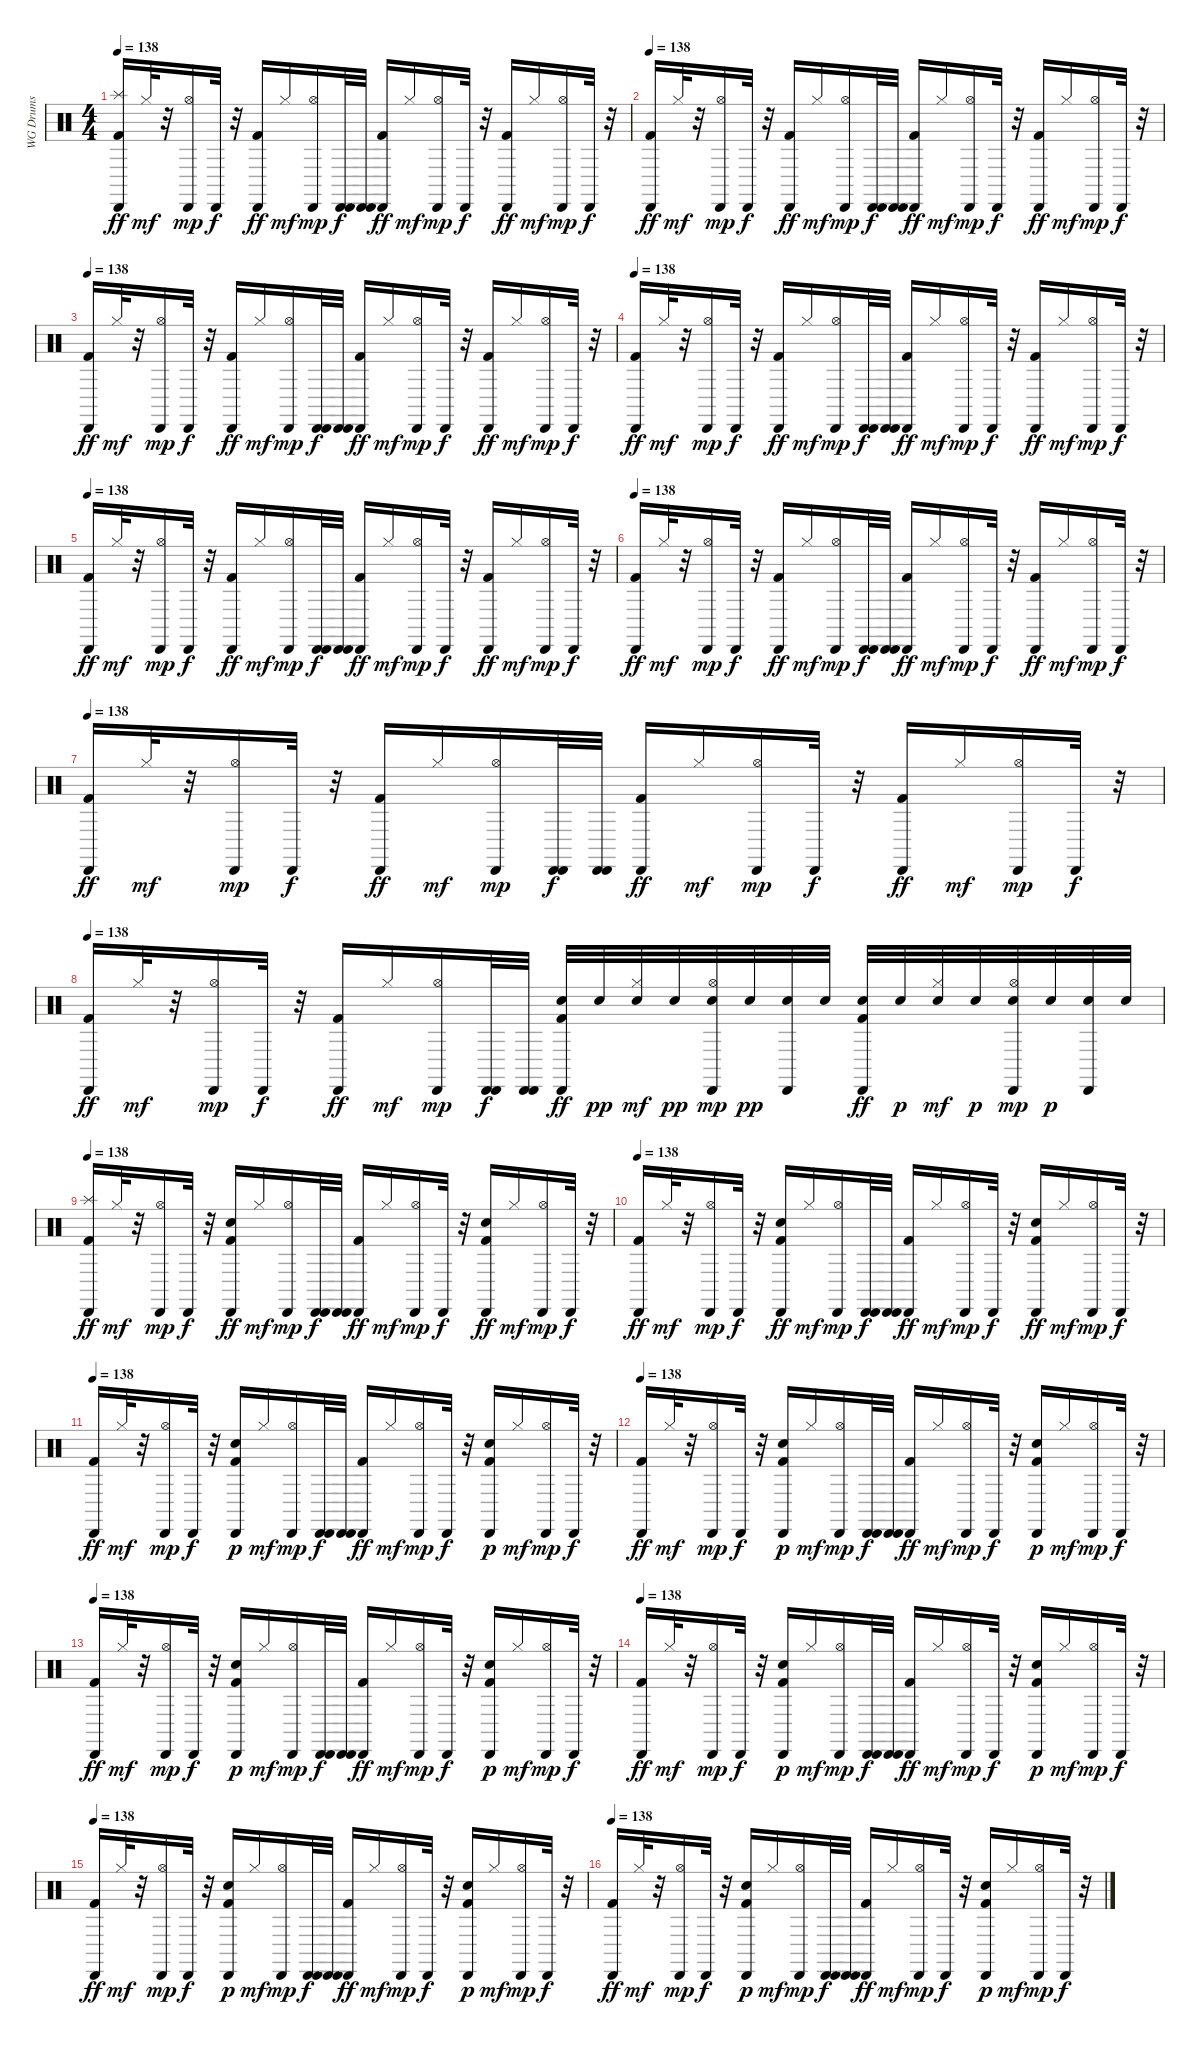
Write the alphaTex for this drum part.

\track ("WG Drums" "WG Drums") {instrument percussion}
\staff {score}
\articulation defaults
\ts (4 4)
\tempo 138
\clef neutral
\ks c
("Splash (hit)" "Cabasa (hit)" "Kick (hit) 2").16{dy ff} "Hi-Hat (closed)".32{dy mf} r.32 ("Cabasa (hit)" "Hi-Hat (open)").16{dy mp} "Cabasa (hit)".32{dy f} r.32 ("Cabasa (hit)" "Kick (hit) 2").16{dy ff} "Hi-Hat (closed)".16{dy mf} ("Cabasa (hit)" "Hi-Hat (open)").16{dy mp} ("Cabasa (hit)" "Cabasa (hit)").32{dy f} ("Cabasa (hit)" "Cabasa (hit)").32 ("Cabasa (hit)" "Kick (hit) 2").16{dy ff} "Hi-Hat (closed)".16{dy mf} ("Cabasa (hit)" "Hi-Hat (open)").16{dy mp} "Cabasa (hit)".32{dy f} r.32 ("Cabasa (hit)" "Kick (hit) 2").16{dy ff} "Hi-Hat (closed)".16{dy mf} ("Cabasa (hit)" "Hi-Hat (open)").16{dy mp} "Cabasa (hit)".32{dy f} r.32 |
\tempo 138
("Cabasa (hit)" "Kick (hit) 2").16{dy ff} "Hi-Hat (closed)".32{dy mf} r.32 ("Cabasa (hit)" "Hi-Hat (open)").16{dy mp} "Cabasa (hit)".32{dy f} r.32 ("Cabasa (hit)" "Kick (hit) 2").16{dy ff} "Hi-Hat (closed)".16{dy mf} ("Cabasa (hit)" "Hi-Hat (open)").16{dy mp} ("Cabasa (hit)" "Cabasa (hit)").32{dy f} ("Cabasa (hit)" "Cabasa (hit)").32 ("Cabasa (hit)" "Kick (hit) 2").16{dy ff} "Hi-Hat (closed)".16{dy mf} ("Cabasa (hit)" "Hi-Hat (open)").16{dy mp} "Cabasa (hit)".32{dy f} r.32 ("Cabasa (hit)" "Kick (hit) 2").16{dy ff} "Hi-Hat (closed)".16{dy mf} ("Cabasa (hit)" "Hi-Hat (open)").16{dy mp} "Cabasa (hit)".32{dy f} r.32 |
\tempo 138
("Cabasa (hit)" "Kick (hit) 2").16{dy ff} "Hi-Hat (closed)".32{dy mf} r.32 ("Cabasa (hit)" "Hi-Hat (open)").16{dy mp} "Cabasa (hit)".32{dy f} r.32 ("Cabasa (hit)" "Kick (hit) 2").16{dy ff} "Hi-Hat (closed)".16{dy mf} ("Cabasa (hit)" "Hi-Hat (open)").16{dy mp} ("Cabasa (hit)" "Cabasa (hit)").32{dy f} ("Cabasa (hit)" "Cabasa (hit)").32 ("Cabasa (hit)" "Kick (hit) 2").16{dy ff} "Hi-Hat (closed)".16{dy mf} ("Cabasa (hit)" "Hi-Hat (open)").16{dy mp} "Cabasa (hit)".32{dy f} r.32 ("Cabasa (hit)" "Kick (hit) 2").16{dy ff} "Hi-Hat (closed)".16{dy mf} ("Cabasa (hit)" "Hi-Hat (open)").16{dy mp} "Cabasa (hit)".32{dy f} r.32 |
\tempo 138
("Cabasa (hit)" "Kick (hit) 2").16{dy ff} "Hi-Hat (closed)".32{dy mf} r.32 ("Cabasa (hit)" "Hi-Hat (open)").16{dy mp} "Cabasa (hit)".32{dy f} r.32 ("Cabasa (hit)" "Kick (hit) 2").16{dy ff} "Hi-Hat (closed)".16{dy mf} ("Cabasa (hit)" "Hi-Hat (open)").16{dy mp} ("Cabasa (hit)" "Cabasa (hit)").32{dy f} ("Cabasa (hit)" "Cabasa (hit)").32 ("Cabasa (hit)" "Kick (hit) 2").16{dy ff} "Hi-Hat (closed)".16{dy mf} ("Cabasa (hit)" "Hi-Hat (open)").16{dy mp} "Cabasa (hit)".32{dy f} r.32 ("Cabasa (hit)" "Kick (hit) 2").16{dy ff} "Hi-Hat (closed)".16{dy mf} ("Cabasa (hit)" "Hi-Hat (open)").16{dy mp} "Cabasa (hit)".32{dy f} r.32 |
\tempo 138
("Cabasa (hit)" "Kick (hit) 2").16{dy ff} "Hi-Hat (closed)".32{dy mf} r.32 ("Cabasa (hit)" "Hi-Hat (open)").16{dy mp} "Cabasa (hit)".32{dy f} r.32 ("Cabasa (hit)" "Kick (hit) 2").16{dy ff} "Hi-Hat (closed)".16{dy mf} ("Cabasa (hit)" "Hi-Hat (open)").16{dy mp} ("Cabasa (hit)" "Cabasa (hit)").32{dy f} ("Cabasa (hit)" "Cabasa (hit)").32 ("Cabasa (hit)" "Kick (hit) 2").16{dy ff} "Hi-Hat (closed)".16{dy mf} ("Cabasa (hit)" "Hi-Hat (open)").16{dy mp} "Cabasa (hit)".32{dy f} r.32 ("Cabasa (hit)" "Kick (hit) 2").16{dy ff} "Hi-Hat (closed)".16{dy mf} ("Cabasa (hit)" "Hi-Hat (open)").16{dy mp} "Cabasa (hit)".32{dy f} r.32 |
\tempo 138
("Cabasa (hit)" "Kick (hit) 2").16{dy ff} "Hi-Hat (closed)".32{dy mf} r.32 ("Cabasa (hit)" "Hi-Hat (open)").16{dy mp} "Cabasa (hit)".32{dy f} r.32 ("Cabasa (hit)" "Kick (hit) 2").16{dy ff} "Hi-Hat (closed)".16{dy mf} ("Cabasa (hit)" "Hi-Hat (open)").16{dy mp} ("Cabasa (hit)" "Cabasa (hit)").32{dy f} ("Cabasa (hit)" "Cabasa (hit)").32 ("Cabasa (hit)" "Kick (hit) 2").16{dy ff} "Hi-Hat (closed)".16{dy mf} ("Cabasa (hit)" "Hi-Hat (open)").16{dy mp} "Cabasa (hit)".32{dy f} r.32 ("Cabasa (hit)" "Kick (hit) 2").16{dy ff} "Hi-Hat (closed)".16{dy mf} ("Cabasa (hit)" "Hi-Hat (open)").16{dy mp} "Cabasa (hit)".32{dy f} r.32 |
\tempo 138
("Cabasa (hit)" "Kick (hit) 2").16{dy ff} "Hi-Hat (closed)".32{dy mf} r.32 ("Cabasa (hit)" "Hi-Hat (open)").16{dy mp} "Cabasa (hit)".32{dy f} r.32 ("Cabasa (hit)" "Kick (hit) 2").16{dy ff} "Hi-Hat (closed)".16{dy mf} ("Cabasa (hit)" "Hi-Hat (open)").16{dy mp} ("Cabasa (hit)" "Cabasa (hit)").32{dy f} ("Cabasa (hit)" "Cabasa (hit)").32 ("Cabasa (hit)" "Kick (hit) 2").16{dy ff} "Hi-Hat (closed)".16{dy mf} ("Cabasa (hit)" "Hi-Hat (open)").16{dy mp} "Cabasa (hit)".32{dy f} r.32 ("Cabasa (hit)" "Kick (hit) 2").16{dy ff} "Hi-Hat (closed)".16{dy mf} ("Cabasa (hit)" "Hi-Hat (open)").16{dy mp} "Cabasa (hit)".32{dy f} r.32 |
\tempo 138
("Cabasa (hit)" "Kick (hit) 2").16{dy ff} "Hi-Hat (closed)".32{dy mf} r.32 ("Cabasa (hit)" "Hi-Hat (open)").16{dy mp} "Cabasa (hit)".32{dy f} r.32 ("Cabasa (hit)" "Kick (hit) 2").16{dy ff} "Hi-Hat (closed)".16{dy mf} ("Cabasa (hit)" "Hi-Hat (open)").16{dy mp} ("Cabasa (hit)" "Cabasa (hit)").32{dy f} ("Cabasa (hit)" "Cabasa (hit)").32 ("Electric Snare (hit)" "Cabasa (hit)" "Kick (hit) 2").32{dy ff} "Electric Snare (hit)".32{dy pp} ("Electric Snare (hit)" "Hi-Hat (closed)").32{dy mf} "Electric Snare (hit)".32{dy pp} ("Electric Snare (hit)" "Cabasa (hit)" "Hi-Hat (open)").32{dy mp} "Electric Snare (hit)".32{dy pp} ("Electric Snare (hit)" "Cabasa (hit)").32 "Electric Snare (hit)".32 ("Electric Snare (hit)" "Cabasa (hit)" "Kick (hit) 2").32{dy ff} "Electric Snare (hit)".32{dy p} ("Electric Snare (hit)" "Hi-Hat (closed)").32{dy mf} "Electric Snare (hit)".32{dy p} ("Electric Snare (hit)" "Cabasa (hit)" "Hi-Hat (open)").32{dy mp} "Electric Snare (hit)".32{dy p} ("Electric Snare (hit)" "Cabasa (hit)").32 "Electric Snare (hit)".32 |
\tempo 138
("Splash (hit)" "Cabasa (hit)" "Kick (hit) 2").16{dy ff} "Hi-Hat (closed)".32{dy mf} r.32 ("Cabasa (hit)" "Hi-Hat (open)").16{dy mp} "Cabasa (hit)".32{dy f} r.32 ("Hand Clap (hit)" "Cabasa (hit)" "Kick (hit) 2").16{dy ff} "Hi-Hat (closed)".16{dy mf} ("Cabasa (hit)" "Hi-Hat (open)").16{dy mp} ("Cabasa (hit)" "Cabasa (hit)").32{dy f} ("Cabasa (hit)" "Cabasa (hit)").32 ("Cabasa (hit)" "Kick (hit) 2").16{dy ff} "Hi-Hat (closed)".16{dy mf} ("Cabasa (hit)" "Hi-Hat (open)").16{dy mp} "Cabasa (hit)".32{dy f} r.32 ("Hand Clap (hit)" "Cabasa (hit)" "Kick (hit) 2").16{dy ff} "Hi-Hat (closed)".16{dy mf} ("Cabasa (hit)" "Hi-Hat (open)").16{dy mp} "Cabasa (hit)".32{dy f} r.32 |
\tempo 138
("Cabasa (hit)" "Kick (hit) 2").16{dy ff} "Hi-Hat (closed)".32{dy mf} r.32 ("Cabasa (hit)" "Hi-Hat (open)").16{dy mp} "Cabasa (hit)".32{dy f} r.32 ("Hand Clap (hit)" "Cabasa (hit)" "Kick (hit) 2").16{dy ff} "Hi-Hat (closed)".16{dy mf} ("Cabasa (hit)" "Hi-Hat (open)").16{dy mp} ("Cabasa (hit)" "Cabasa (hit)").32{dy f} ("Cabasa (hit)" "Cabasa (hit)").32 ("Cabasa (hit)" "Kick (hit) 2").16{dy ff} "Hi-Hat (closed)".16{dy mf} ("Cabasa (hit)" "Hi-Hat (open)").16{dy mp} "Cabasa (hit)".32{dy f} r.32 ("Hand Clap (hit)" "Cabasa (hit)" "Kick (hit) 2").16{dy ff} "Hi-Hat (closed)".16{dy mf} ("Cabasa (hit)" "Hi-Hat (open)").16{dy mp} "Cabasa (hit)".32{dy f} r.32 |
\tempo 138
("Cabasa (hit)" "Kick (hit) 2").16{dy ff} "Hi-Hat (closed)".32{dy mf} r.32 ("Cabasa (hit)" "Hi-Hat (open)").16{dy mp} "Cabasa (hit)".32{dy f} r.32 ("Cabasa (hit)" "Kick (hit) 2" "Hand Clap (hit)").16{dy p} "Hi-Hat (closed)".16{dy mf} ("Cabasa (hit)" "Hi-Hat (open)").16{dy mp} ("Cabasa (hit)" "Cabasa (hit)").32{dy f} ("Cabasa (hit)" "Cabasa (hit)").32 ("Cabasa (hit)" "Kick (hit) 2").16{dy ff} "Hi-Hat (closed)".16{dy mf} ("Cabasa (hit)" "Hi-Hat (open)").16{dy mp} "Cabasa (hit)".32{dy f} r.32 ("Cabasa (hit)" "Kick (hit) 2" "Hand Clap (hit)").16{dy p} "Hi-Hat (closed)".16{dy mf} ("Cabasa (hit)" "Hi-Hat (open)").16{dy mp} "Cabasa (hit)".32{dy f} r.32 |
\tempo 138
("Cabasa (hit)" "Kick (hit) 2").16{dy ff} "Hi-Hat (closed)".32{dy mf} r.32 ("Cabasa (hit)" "Hi-Hat (open)").16{dy mp} "Cabasa (hit)".32{dy f} r.32 ("Cabasa (hit)" "Kick (hit) 2" "Hand Clap (hit)").16{dy p} "Hi-Hat (closed)".16{dy mf} ("Cabasa (hit)" "Hi-Hat (open)").16{dy mp} ("Cabasa (hit)" "Cabasa (hit)").32{dy f} ("Cabasa (hit)" "Cabasa (hit)").32 ("Cabasa (hit)" "Kick (hit) 2").16{dy ff} "Hi-Hat (closed)".16{dy mf} ("Cabasa (hit)" "Hi-Hat (open)").16{dy mp} "Cabasa (hit)".32{dy f} r.32 ("Cabasa (hit)" "Kick (hit) 2" "Hand Clap (hit)").16{dy p} "Hi-Hat (closed)".16{dy mf} ("Cabasa (hit)" "Hi-Hat (open)").16{dy mp} "Cabasa (hit)".32{dy f} r.32 |
\tempo 138
("Cabasa (hit)" "Kick (hit) 2").16{dy ff} "Hi-Hat (closed)".32{dy mf} r.32 ("Cabasa (hit)" "Hi-Hat (open)").16{dy mp} "Cabasa (hit)".32{dy f} r.32 ("Cabasa (hit)" "Kick (hit) 2" "Hand Clap (hit)").16{dy p} "Hi-Hat (closed)".16{dy mf} ("Cabasa (hit)" "Hi-Hat (open)").16{dy mp} ("Cabasa (hit)" "Cabasa (hit)").32{dy f} ("Cabasa (hit)" "Cabasa (hit)").32 ("Cabasa (hit)" "Kick (hit) 2").16{dy ff} "Hi-Hat (closed)".16{dy mf} ("Cabasa (hit)" "Hi-Hat (open)").16{dy mp} "Cabasa (hit)".32{dy f} r.32 ("Cabasa (hit)" "Kick (hit) 2" "Hand Clap (hit)").16{dy p} "Hi-Hat (closed)".16{dy mf} ("Cabasa (hit)" "Hi-Hat (open)").16{dy mp} "Cabasa (hit)".32{dy f} r.32 |
\tempo 138
("Cabasa (hit)" "Kick (hit) 2").16{dy ff} "Hi-Hat (closed)".32{dy mf} r.32 ("Cabasa (hit)" "Hi-Hat (open)").16{dy mp} "Cabasa (hit)".32{dy f} r.32 ("Cabasa (hit)" "Kick (hit) 2" "Hand Clap (hit)").16{dy p} "Hi-Hat (closed)".16{dy mf} ("Cabasa (hit)" "Hi-Hat (open)").16{dy mp} ("Cabasa (hit)" "Cabasa (hit)").32{dy f} ("Cabasa (hit)" "Cabasa (hit)").32 ("Cabasa (hit)" "Kick (hit) 2").16{dy ff} "Hi-Hat (closed)".16{dy mf} ("Cabasa (hit)" "Hi-Hat (open)").16{dy mp} "Cabasa (hit)".32{dy f} r.32 ("Cabasa (hit)" "Kick (hit) 2" "Hand Clap (hit)").16{dy p} "Hi-Hat (closed)".16{dy mf} ("Cabasa (hit)" "Hi-Hat (open)").16{dy mp} "Cabasa (hit)".32{dy f} r.32 |
\tempo 138
("Cabasa (hit)" "Kick (hit) 2").16{dy ff} "Hi-Hat (closed)".32{dy mf} r.32 ("Cabasa (hit)" "Hi-Hat (open)").16{dy mp} "Cabasa (hit)".32{dy f} r.32 ("Cabasa (hit)" "Kick (hit) 2" "Hand Clap (hit)").16{dy p} "Hi-Hat (closed)".16{dy mf} ("Cabasa (hit)" "Hi-Hat (open)").16{dy mp} ("Cabasa (hit)" "Cabasa (hit)").32{dy f} ("Cabasa (hit)" "Cabasa (hit)").32 ("Cabasa (hit)" "Kick (hit) 2").16{dy ff} "Hi-Hat (closed)".16{dy mf} ("Cabasa (hit)" "Hi-Hat (open)").16{dy mp} "Cabasa (hit)".32{dy f} r.32 ("Cabasa (hit)" "Kick (hit) 2" "Hand Clap (hit)").16{dy p} "Hi-Hat (closed)".16{dy mf} ("Cabasa (hit)" "Hi-Hat (open)").16{dy mp} "Cabasa (hit)".32{dy f} r.32 |
\tempo 138
("Cabasa (hit)" "Kick (hit) 2").16{dy ff} "Hi-Hat (closed)".32{dy mf} r.32 ("Cabasa (hit)" "Hi-Hat (open)").16{dy mp} "Cabasa (hit)".32{dy f} r.32 ("Cabasa (hit)" "Kick (hit) 2" "Hand Clap (hit)").16{dy p} "Hi-Hat (closed)".16{dy mf} ("Cabasa (hit)" "Hi-Hat (open)").16{dy mp} ("Cabasa (hit)" "Cabasa (hit)").32{dy f} ("Cabasa (hit)" "Cabasa (hit)").32 ("Cabasa (hit)" "Kick (hit) 2").16{dy ff} "Hi-Hat (closed)".16{dy mf} ("Cabasa (hit)" "Hi-Hat (open)").16{dy mp} "Cabasa (hit)".32{dy f} r.32 ("Cabasa (hit)" "Kick (hit) 2" "Hand Clap (hit)").16{dy p} "Hi-Hat (closed)".16{dy mf} ("Cabasa (hit)" "Hi-Hat (open)").16{dy mp} "Cabasa (hit)".32{dy f} r.32
